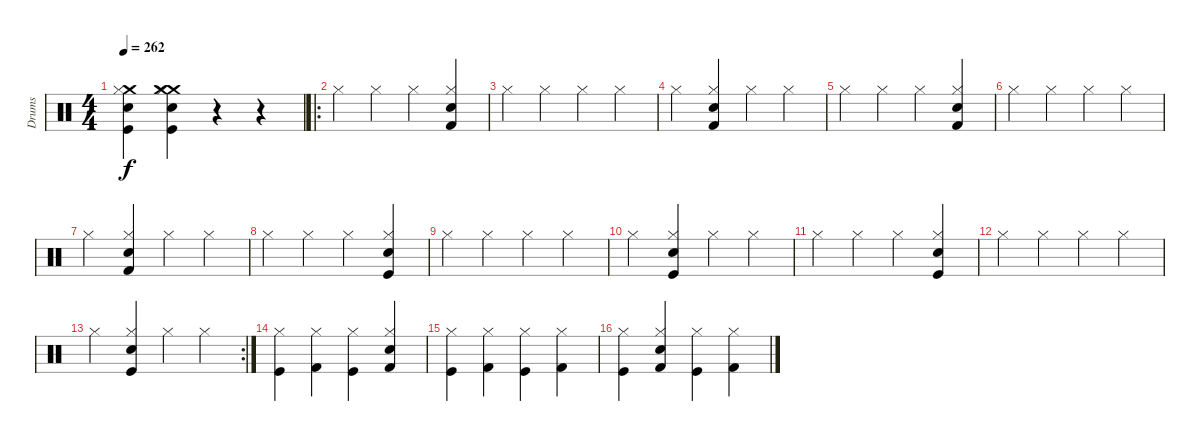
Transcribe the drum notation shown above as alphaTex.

\track ("Drums" "Drums") {instrument percussion}
\staff {score}
\articulation defaults
\ts (4 4)
\tempo 262
\clef neutral
\ks c
("Crash medium (hit)" "Electric Snare (hit)" "Hi-Hat (closed)" "Kick (hit)").4{dy f} ("Crash medium (hit)" "Crash medium (hit)" "Electric Snare (hit)" "Hi-Hat (closed)" "Kick (hit)").4 r.4 r.4 |
\ro "Hi-Hat (closed)".4 "Hi-Hat (closed)".4 "Hi-Hat (closed)".4
("Electric Snare (hit)" "Hi-Hat (closed)" "Kick (hit) 2").4 |
"Hi-Hat (closed)".4 "Hi-Hat (closed)".4 "Hi-Hat (closed)".4 "Hi-Hat (closed)".4 |
"Hi-Hat (closed)".4 ("Electric Snare (hit)" "Hi-Hat (closed)" "Kick (hit) 2").4 "Hi-Hat (closed)".4 "Hi-Hat (closed)".4 |
"Hi-Hat (closed)".4 "Hi-Hat (closed)".4 "Hi-Hat (closed)".4 ("Electric Snare (hit)" "Hi-Hat (closed)" "Kick (hit) 2").4 |
"Hi-Hat (closed)".4 "Hi-Hat (closed)".4 "Hi-Hat (closed)".4 "Hi-Hat (closed)".4 |
"Hi-Hat (closed)".4 ("Electric Snare (hit)" "Hi-Hat (closed)" "Kick (hit) 2").4 "Hi-Hat (closed)".4 "Hi-Hat (closed)".4 |
"Hi-Hat (closed)".4 "Hi-Hat (closed)".4 "Hi-Hat (closed)".4 ("Electric Snare (hit)" "Hi-Hat (closed)" "Kick (hit)").4 |
"Hi-Hat (closed)".4 "Hi-Hat (closed)".4 "Hi-Hat (closed)".4 "Hi-Hat (closed)".4 |
"Hi-Hat (closed)".4 ("Electric Snare (hit)" "Hi-Hat (closed)" "Kick (hit)").4 "Hi-Hat (closed)".4 "Hi-Hat (closed)".4 |
"Hi-Hat (closed)".4 "Hi-Hat (closed)".4 "Hi-Hat (closed)".4 ("Electric Snare (hit)" "Hi-Hat (closed)" "Kick (hit)").4 |
"Hi-Hat (closed)".4 "Hi-Hat (closed)".4 "Hi-Hat (closed)".4 "Hi-Hat (closed)".4 |
\rc 2 "Hi-Hat (closed)".4
("Electric Snare (hit)" "Hi-Hat (closed)" "Kick (hit)").4 "Hi-Hat (closed)".4 "Hi-Hat (closed)".4 |
("Hi-Hat (closed)" "Kick (hit)").4 ("Hi-Hat (closed)" "Kick (hit) 2").4 ("Hi-Hat (closed)" "Kick (hit)").4 ("Electric Snare (hit)" "Hi-Hat (closed)" "Kick (hit) 2").4 |
("Hi-Hat (closed)" "Kick (hit)").4 ("Hi-Hat (closed)" "Kick (hit) 2").4 ("Hi-Hat (closed)" "Kick (hit)").4 ("Hi-Hat (closed)" "Kick (hit) 2").4 |
("Hi-Hat (closed)" "Kick (hit)").4 ("Electric Snare (hit)" "Hi-Hat (closed)" "Kick (hit) 2").4 ("Hi-Hat (closed)" "Kick (hit)").4 ("Hi-Hat (closed)" "Kick (hit) 2").4
